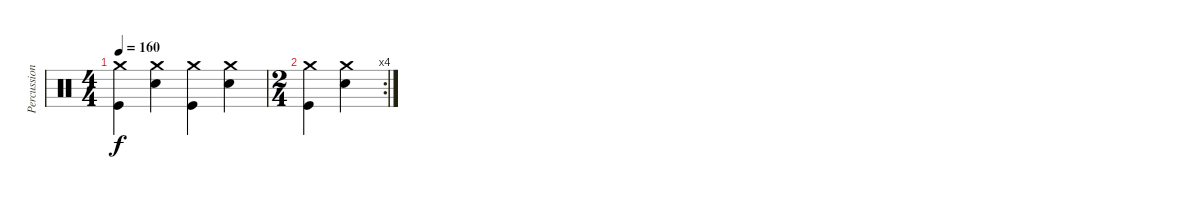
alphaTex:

\track ("Percussion" "Percussion") {instrument percussion}
\staff {score}
\articulation defaults
\ts (4 4)
\tempo 160
\clef neutral
\ks c
("Crash medium (hit)" "Kick (hit)").4{dy f} ("Crash medium (hit)" "Snare (hit) 2").4 ("Crash medium (hit)" "Kick (hit)").4 ("Crash medium (hit)" "Snare (hit) 2").4 |
\rc 4
\ts (2 4)
("Crash medium (hit)" "Kick (hit)").4 ("Crash medium (hit)" "Snare (hit) 2").4
